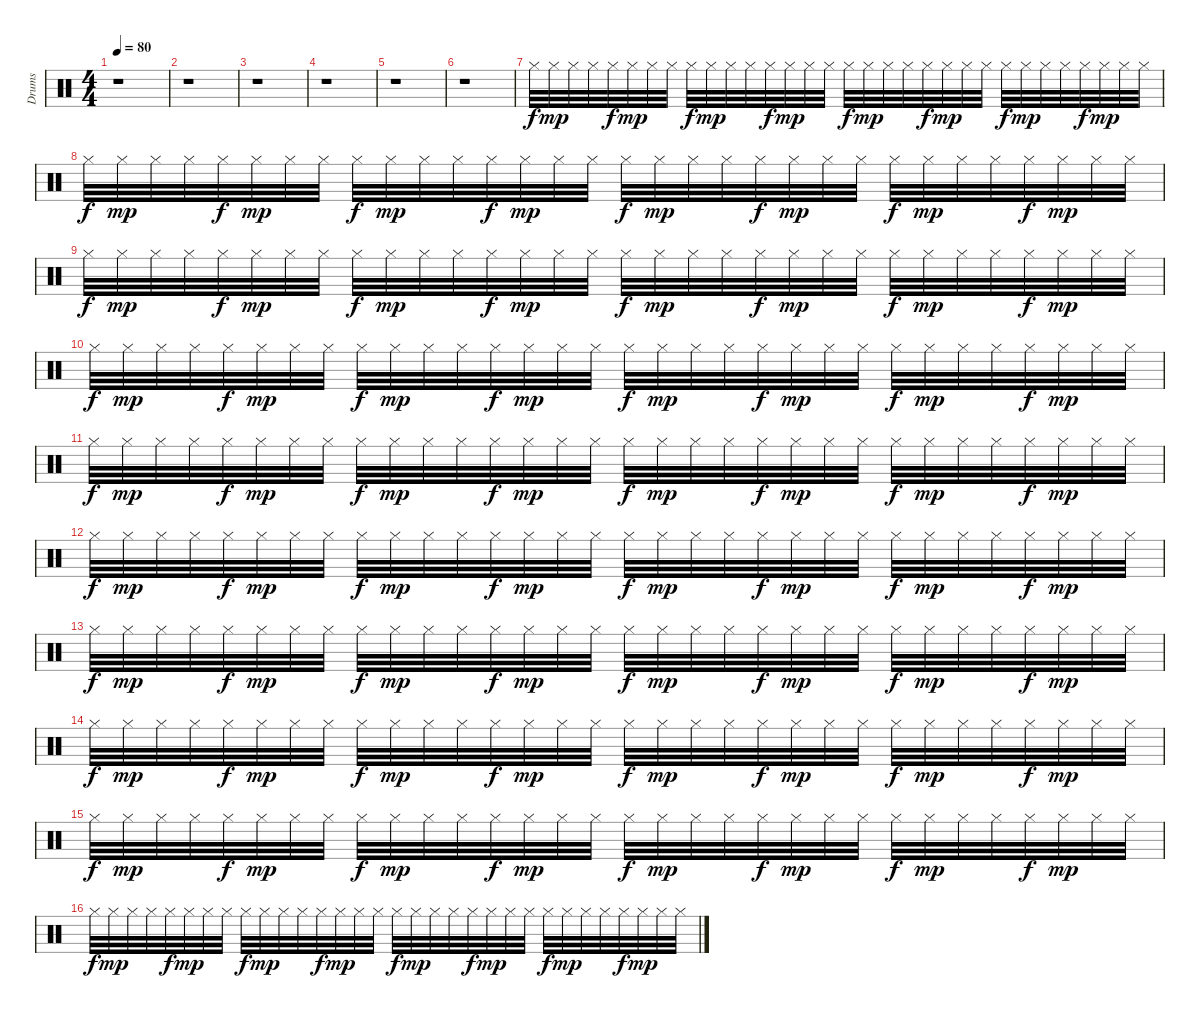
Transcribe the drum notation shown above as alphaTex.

\track ("Drums" "Drums") {instrument percussion}
\staff {score}
\articulation defaults
\ts (4 4)
\tempo 80
\clef neutral
\ks c
r.1{dy pp} |
r.1 |
r.1 |
r.1 |
r.1 |
r.1 |
"Hi-Hat (closed)".32{dy f} "Hi-Hat (closed)".32{dy mp} "Hi-Hat (closed)".32 "Hi-Hat (closed)".32 "Hi-Hat (closed)".32{dy f} "Hi-Hat (closed)".32{dy mp} "Hi-Hat (closed)".32 "Hi-Hat (closed)".32 "Hi-Hat (closed)".32{dy f} "Hi-Hat (closed)".32{dy mp} "Hi-Hat (closed)".32 "Hi-Hat (closed)".32 "Hi-Hat (closed)".32{dy f} "Hi-Hat (closed)".32{dy mp} "Hi-Hat (closed)".32 "Hi-Hat (closed)".32 "Hi-Hat (closed)".32{dy f} "Hi-Hat (closed)".32{dy mp} "Hi-Hat (closed)".32 "Hi-Hat (closed)".32 "Hi-Hat (closed)".32{dy f} "Hi-Hat (closed)".32{dy mp} "Hi-Hat (closed)".32 "Hi-Hat (closed)".32 "Hi-Hat (closed)".32{dy f} "Hi-Hat (closed)".32{dy mp} "Hi-Hat (closed)".32 "Hi-Hat (closed)".32 "Hi-Hat (closed)".32{dy f} "Hi-Hat (closed)".32{dy mp} "Hi-Hat (closed)".32 "Hi-Hat (closed)".32 |
"Hi-Hat (closed)".32{dy f} "Hi-Hat (closed)".32{dy mp} "Hi-Hat (closed)".32 "Hi-Hat (closed)".32 "Hi-Hat (closed)".32{dy f} "Hi-Hat (closed)".32{dy mp} "Hi-Hat (closed)".32 "Hi-Hat (closed)".32 "Hi-Hat (closed)".32{dy f} "Hi-Hat (closed)".32{dy mp} "Hi-Hat (closed)".32 "Hi-Hat (closed)".32 "Hi-Hat (closed)".32{dy f} "Hi-Hat (closed)".32{dy mp} "Hi-Hat (closed)".32 "Hi-Hat (closed)".32 "Hi-Hat (closed)".32{dy f} "Hi-Hat (closed)".32{dy mp} "Hi-Hat (closed)".32 "Hi-Hat (closed)".32 "Hi-Hat (closed)".32{dy f} "Hi-Hat (closed)".32{dy mp} "Hi-Hat (closed)".32 "Hi-Hat (closed)".32 "Hi-Hat (closed)".32{dy f} "Hi-Hat (closed)".32{dy mp} "Hi-Hat (closed)".32 "Hi-Hat (closed)".32 "Hi-Hat (closed)".32{dy f} "Hi-Hat (closed)".32{dy mp} "Hi-Hat (closed)".32 "Hi-Hat (closed)".32 |
"Hi-Hat (closed)".32{dy f} "Hi-Hat (closed)".32{dy mp} "Hi-Hat (closed)".32 "Hi-Hat (closed)".32 "Hi-Hat (closed)".32{dy f} "Hi-Hat (closed)".32{dy mp} "Hi-Hat (closed)".32 "Hi-Hat (closed)".32 "Hi-Hat (closed)".32{dy f} "Hi-Hat (closed)".32{dy mp} "Hi-Hat (closed)".32 "Hi-Hat (closed)".32 "Hi-Hat (closed)".32{dy f} "Hi-Hat (closed)".32{dy mp} "Hi-Hat (closed)".32 "Hi-Hat (closed)".32 "Hi-Hat (closed)".32{dy f} "Hi-Hat (closed)".32{dy mp} "Hi-Hat (closed)".32 "Hi-Hat (closed)".32 "Hi-Hat (closed)".32{dy f} "Hi-Hat (closed)".32{dy mp} "Hi-Hat (closed)".32 "Hi-Hat (closed)".32 "Hi-Hat (closed)".32{dy f} "Hi-Hat (closed)".32{dy mp} "Hi-Hat (closed)".32 "Hi-Hat (closed)".32 "Hi-Hat (closed)".32{dy f} "Hi-Hat (closed)".32{dy mp} "Hi-Hat (closed)".32 "Hi-Hat (closed)".32 |
"Hi-Hat (closed)".32{dy f} "Hi-Hat (closed)".32{dy mp} "Hi-Hat (closed)".32 "Hi-Hat (closed)".32 "Hi-Hat (closed)".32{dy f} "Hi-Hat (closed)".32{dy mp} "Hi-Hat (closed)".32 "Hi-Hat (closed)".32 "Hi-Hat (closed)".32{dy f} "Hi-Hat (closed)".32{dy mp} "Hi-Hat (closed)".32 "Hi-Hat (closed)".32 "Hi-Hat (closed)".32{dy f} "Hi-Hat (closed)".32{dy mp} "Hi-Hat (closed)".32 "Hi-Hat (closed)".32 "Hi-Hat (closed)".32{dy f} "Hi-Hat (closed)".32{dy mp} "Hi-Hat (closed)".32 "Hi-Hat (closed)".32 "Hi-Hat (closed)".32{dy f} "Hi-Hat (closed)".32{dy mp} "Hi-Hat (closed)".32 "Hi-Hat (closed)".32 "Hi-Hat (closed)".32{dy f} "Hi-Hat (closed)".32{dy mp} "Hi-Hat (closed)".32 "Hi-Hat (closed)".32 "Hi-Hat (closed)".32{dy f} "Hi-Hat (closed)".32{dy mp} "Hi-Hat (closed)".32 "Hi-Hat (closed)".32 |
"Hi-Hat (closed)".32{dy f} "Hi-Hat (closed)".32{dy mp} "Hi-Hat (closed)".32 "Hi-Hat (closed)".32 "Hi-Hat (closed)".32{dy f} "Hi-Hat (closed)".32{dy mp} "Hi-Hat (closed)".32 "Hi-Hat (closed)".32 "Hi-Hat (closed)".32{dy f} "Hi-Hat (closed)".32{dy mp} "Hi-Hat (closed)".32 "Hi-Hat (closed)".32 "Hi-Hat (closed)".32{dy f} "Hi-Hat (closed)".32{dy mp} "Hi-Hat (closed)".32 "Hi-Hat (closed)".32 "Hi-Hat (closed)".32{dy f} "Hi-Hat (closed)".32{dy mp} "Hi-Hat (closed)".32 "Hi-Hat (closed)".32 "Hi-Hat (closed)".32{dy f} "Hi-Hat (closed)".32{dy mp} "Hi-Hat (closed)".32 "Hi-Hat (closed)".32 "Hi-Hat (closed)".32{dy f} "Hi-Hat (closed)".32{dy mp} "Hi-Hat (closed)".32 "Hi-Hat (closed)".32 "Hi-Hat (closed)".32{dy f} "Hi-Hat (closed)".32{dy mp} "Hi-Hat (closed)".32 "Hi-Hat (closed)".32 |
"Hi-Hat (closed)".32{dy f} "Hi-Hat (closed)".32{dy mp} "Hi-Hat (closed)".32 "Hi-Hat (closed)".32 "Hi-Hat (closed)".32{dy f} "Hi-Hat (closed)".32{dy mp} "Hi-Hat (closed)".32 "Hi-Hat (closed)".32 "Hi-Hat (closed)".32{dy f} "Hi-Hat (closed)".32{dy mp} "Hi-Hat (closed)".32 "Hi-Hat (closed)".32 "Hi-Hat (closed)".32{dy f} "Hi-Hat (closed)".32{dy mp} "Hi-Hat (closed)".32 "Hi-Hat (closed)".32 "Hi-Hat (closed)".32{dy f} "Hi-Hat (closed)".32{dy mp} "Hi-Hat (closed)".32 "Hi-Hat (closed)".32 "Hi-Hat (closed)".32{dy f} "Hi-Hat (closed)".32{dy mp} "Hi-Hat (closed)".32 "Hi-Hat (closed)".32 "Hi-Hat (closed)".32{dy f} "Hi-Hat (closed)".32{dy mp} "Hi-Hat (closed)".32 "Hi-Hat (closed)".32 "Hi-Hat (closed)".32{dy f} "Hi-Hat (closed)".32{dy mp} "Hi-Hat (closed)".32 "Hi-Hat (closed)".32 |
"Hi-Hat (closed)".32{dy f} "Hi-Hat (closed)".32{dy mp} "Hi-Hat (closed)".32 "Hi-Hat (closed)".32 "Hi-Hat (closed)".32{dy f} "Hi-Hat (closed)".32{dy mp} "Hi-Hat (closed)".32 "Hi-Hat (closed)".32 "Hi-Hat (closed)".32{dy f} "Hi-Hat (closed)".32{dy mp} "Hi-Hat (closed)".32 "Hi-Hat (closed)".32 "Hi-Hat (closed)".32{dy f} "Hi-Hat (closed)".32{dy mp} "Hi-Hat (closed)".32 "Hi-Hat (closed)".32 "Hi-Hat (closed)".32{dy f} "Hi-Hat (closed)".32{dy mp} "Hi-Hat (closed)".32 "Hi-Hat (closed)".32 "Hi-Hat (closed)".32{dy f} "Hi-Hat (closed)".32{dy mp} "Hi-Hat (closed)".32 "Hi-Hat (closed)".32 "Hi-Hat (closed)".32{dy f} "Hi-Hat (closed)".32{dy mp} "Hi-Hat (closed)".32 "Hi-Hat (closed)".32 "Hi-Hat (closed)".32{dy f} "Hi-Hat (closed)".32{dy mp} "Hi-Hat (closed)".32 "Hi-Hat (closed)".32 |
"Hi-Hat (closed)".32{dy f} "Hi-Hat (closed)".32{dy mp} "Hi-Hat (closed)".32 "Hi-Hat (closed)".32 "Hi-Hat (closed)".32{dy f} "Hi-Hat (closed)".32{dy mp} "Hi-Hat (closed)".32 "Hi-Hat (closed)".32 "Hi-Hat (closed)".32{dy f} "Hi-Hat (closed)".32{dy mp} "Hi-Hat (closed)".32 "Hi-Hat (closed)".32 "Hi-Hat (closed)".32{dy f} "Hi-Hat (closed)".32{dy mp} "Hi-Hat (closed)".32 "Hi-Hat (closed)".32 "Hi-Hat (closed)".32{dy f} "Hi-Hat (closed)".32{dy mp} "Hi-Hat (closed)".32 "Hi-Hat (closed)".32 "Hi-Hat (closed)".32{dy f} "Hi-Hat (closed)".32{dy mp} "Hi-Hat (closed)".32 "Hi-Hat (closed)".32 "Hi-Hat (closed)".32{dy f} "Hi-Hat (closed)".32{dy mp} "Hi-Hat (closed)".32 "Hi-Hat (closed)".32 "Hi-Hat (closed)".32{dy f} "Hi-Hat (closed)".32{dy mp} "Hi-Hat (closed)".32 "Hi-Hat (closed)".32 |
"Hi-Hat (closed)".32{dy f} "Hi-Hat (closed)".32{dy mp} "Hi-Hat (closed)".32 "Hi-Hat (closed)".32 "Hi-Hat (closed)".32{dy f} "Hi-Hat (closed)".32{dy mp} "Hi-Hat (closed)".32 "Hi-Hat (closed)".32 "Hi-Hat (closed)".32{dy f} "Hi-Hat (closed)".32{dy mp} "Hi-Hat (closed)".32 "Hi-Hat (closed)".32 "Hi-Hat (closed)".32{dy f} "Hi-Hat (closed)".32{dy mp} "Hi-Hat (closed)".32 "Hi-Hat (closed)".32 "Hi-Hat (closed)".32{dy f} "Hi-Hat (closed)".32{dy mp} "Hi-Hat (closed)".32 "Hi-Hat (closed)".32 "Hi-Hat (closed)".32{dy f} "Hi-Hat (closed)".32{dy mp} "Hi-Hat (closed)".32 "Hi-Hat (closed)".32 "Hi-Hat (closed)".32{dy f} "Hi-Hat (closed)".32{dy mp} "Hi-Hat (closed)".32 "Hi-Hat (closed)".32 "Hi-Hat (closed)".32{dy f} "Hi-Hat (closed)".32{dy mp} "Hi-Hat (closed)".32 "Hi-Hat (closed)".32 |
"Hi-Hat (closed)".32{dy f} "Hi-Hat (closed)".32{dy mp} "Hi-Hat (closed)".32 "Hi-Hat (closed)".32 "Hi-Hat (closed)".32{dy f} "Hi-Hat (closed)".32{dy mp} "Hi-Hat (closed)".32 "Hi-Hat (closed)".32 "Hi-Hat (closed)".32{dy f} "Hi-Hat (closed)".32{dy mp} "Hi-Hat (closed)".32 "Hi-Hat (closed)".32 "Hi-Hat (closed)".32{dy f} "Hi-Hat (closed)".32{dy mp} "Hi-Hat (closed)".32 "Hi-Hat (closed)".32 "Hi-Hat (closed)".32{dy f} "Hi-Hat (closed)".32{dy mp} "Hi-Hat (closed)".32 "Hi-Hat (closed)".32 "Hi-Hat (closed)".32{dy f} "Hi-Hat (closed)".32{dy mp} "Hi-Hat (closed)".32 "Hi-Hat (closed)".32 "Hi-Hat (closed)".32{dy f} "Hi-Hat (closed)".32{dy mp} "Hi-Hat (closed)".32 "Hi-Hat (closed)".32 "Hi-Hat (closed)".32{dy f} "Hi-Hat (closed)".32{dy mp} "Hi-Hat (closed)".32 "Hi-Hat (closed)".32
